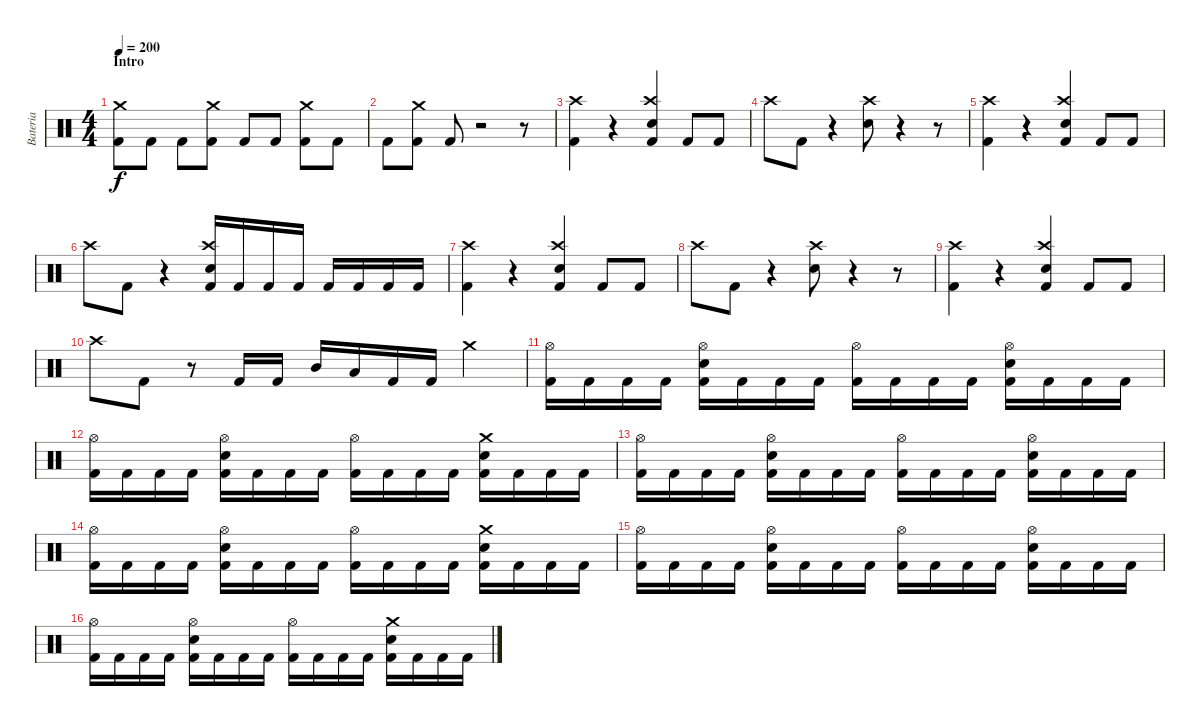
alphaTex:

\track ("Bateria" "Bateria") {instrument percussion}
\staff {score}
\articulation defaults
\ts (4 4)
\section ("" "Intro")
\tempo 200
\clef neutral
\ks c
("Crash medium (hit)" "Kick (hit) 2").8{dy f} "Kick (hit) 2".8 "Kick (hit) 2".8 ("Crash medium (hit)" "Kick (hit) 2").8 "Kick (hit) 2".8 "Kick (hit) 2".8 ("Crash medium (hit)" "Kick (hit) 2").8 "Kick (hit) 2".8 |
"Kick (hit) 2".8 ("Crash medium (hit)" "Kick (hit) 2").8 "Kick (hit) 2".8 r.2 r.8 |
("Crash high (hit)" "Kick (hit) 2").4 r.4 ("Crash high (hit)" "Electric Snare (hit)" "Kick (hit) 2").4 "Kick (hit) 2".8 "Kick (hit) 2".8 |
"Crash high (hit)".8 "Kick (hit) 2".8 r.4 ("Crash high (hit)" "Electric Snare (hit)").8 r.4 r.8 |
("Crash high (hit)" "Kick (hit) 2").4 r.4 ("Crash high (hit)" "Electric Snare (hit)" "Kick (hit) 2").4 "Kick (hit) 2".8 "Kick (hit) 2".8 |
"Crash high (hit)".8 "Kick (hit) 2".8 r.4 ("Crash high (hit)" "Electric Snare (hit)" "Kick (hit) 2").16 "Kick (hit) 2".16 "Kick (hit) 2".16 "Kick (hit) 2".16 "Kick (hit) 2".16 "Kick (hit) 2".16 "Kick (hit) 2".16 "Kick (hit) 2".16 |
("Crash high (hit)" "Kick (hit) 2").4 r.4 ("Crash high (hit)" "Electric Snare (hit)" "Kick (hit) 2").4 "Kick (hit) 2".8 "Kick (hit) 2".8 |
"Crash high (hit)".8 "Kick (hit) 2".8 r.4 ("Crash high (hit)" "Electric Snare (hit)").8 r.4 r.8 |
("Crash high (hit)" "Kick (hit) 2").4 r.4 ("Crash high (hit)" "Electric Snare (hit)" "Kick (hit) 2").4 "Kick (hit) 2".8 "Kick (hit) 2".8 |
"Crash high (hit)".8 "Kick (hit) 2".8 r.8 "Kick (hit) 2".16 "Kick (hit) 2".16 "Mid Tom (hit)".16 "Low Tom (hit)".16 "Kick (hit) 2".16 "Kick (hit) 2".16 "Crash medium (hit)".4 |
("Hi-Hat (open)" "Kick (hit) 2").16 "Kick (hit) 2".16 "Kick (hit) 2".16 "Kick (hit) 2".16 ("Hi-Hat (open)" "Electric Snare (hit)" "Kick (hit) 2").16 "Kick (hit) 2".16 "Kick (hit) 2".16 "Kick (hit) 2".16 ("Hi-Hat (open)" "Kick (hit) 2").16 "Kick (hit) 2".16 "Kick (hit) 2".16 "Kick (hit) 2".16 ("Hi-Hat (open)" "Electric Snare (hit)" "Kick (hit) 2").16 "Kick (hit) 2".16 "Kick (hit) 2".16 "Kick (hit) 2".16 |
("Hi-Hat (open)" "Kick (hit) 2").16 "Kick (hit) 2".16 "Kick (hit) 2".16 "Kick (hit) 2".16 ("Hi-Hat (open)" "Electric Snare (hit)" "Kick (hit) 2").16 "Kick (hit) 2".16 "Kick (hit) 2".16 "Kick (hit) 2".16 ("Hi-Hat (open)" "Kick (hit) 2").16 "Kick (hit) 2".16 "Kick (hit) 2".16 "Kick (hit) 2".16 ("Crash medium (hit)" "Electric Snare (hit)" "Kick (hit) 2").16 "Kick (hit) 2".16 "Kick (hit) 2".16 "Kick (hit) 2".16 |
("Hi-Hat (open)" "Kick (hit) 2").16 "Kick (hit) 2".16 "Kick (hit) 2".16 "Kick (hit) 2".16 ("Hi-Hat (open)" "Electric Snare (hit)" "Kick (hit) 2").16 "Kick (hit) 2".16 "Kick (hit) 2".16 "Kick (hit) 2".16 ("Hi-Hat (open)" "Kick (hit) 2").16 "Kick (hit) 2".16 "Kick (hit) 2".16 "Kick (hit) 2".16 ("Hi-Hat (open)" "Electric Snare (hit)" "Kick (hit) 2").16 "Kick (hit) 2".16 "Kick (hit) 2".16 "Kick (hit) 2".16 |
("Hi-Hat (open)" "Kick (hit) 2").16 "Kick (hit) 2".16 "Kick (hit) 2".16 "Kick (hit) 2".16 ("Hi-Hat (open)" "Electric Snare (hit)" "Kick (hit) 2").16 "Kick (hit) 2".16 "Kick (hit) 2".16 "Kick (hit) 2".16 ("Hi-Hat (open)" "Kick (hit) 2").16 "Kick (hit) 2".16 "Kick (hit) 2".16 "Kick (hit) 2".16 ("Crash medium (hit)" "Electric Snare (hit)" "Kick (hit) 2").16 "Kick (hit) 2".16 "Kick (hit) 2".16 "Kick (hit) 2".16 |
("Hi-Hat (open)" "Kick (hit) 2").16 "Kick (hit) 2".16 "Kick (hit) 2".16 "Kick (hit) 2".16 ("Hi-Hat (open)" "Electric Snare (hit)" "Kick (hit) 2").16 "Kick (hit) 2".16 "Kick (hit) 2".16 "Kick (hit) 2".16 ("Hi-Hat (open)" "Kick (hit) 2").16 "Kick (hit) 2".16 "Kick (hit) 2".16 "Kick (hit) 2".16 ("Hi-Hat (open)" "Electric Snare (hit)" "Kick (hit) 2").16 "Kick (hit) 2".16 "Kick (hit) 2".16 "Kick (hit) 2".16 |
("Hi-Hat (open)" "Kick (hit) 2").16 "Kick (hit) 2".16 "Kick (hit) 2".16 "Kick (hit) 2".16 ("Hi-Hat (open)" "Electric Snare (hit)" "Kick (hit) 2").16 "Kick (hit) 2".16 "Kick (hit) 2".16 "Kick (hit) 2".16 ("Hi-Hat (open)" "Kick (hit) 2").16 "Kick (hit) 2".16 "Kick (hit) 2".16 "Kick (hit) 2".16 ("Crash medium (hit)" "Electric Snare (hit)" "Kick (hit) 2").16 "Kick (hit) 2".16 "Kick (hit) 2".16 "Kick (hit) 2".16
